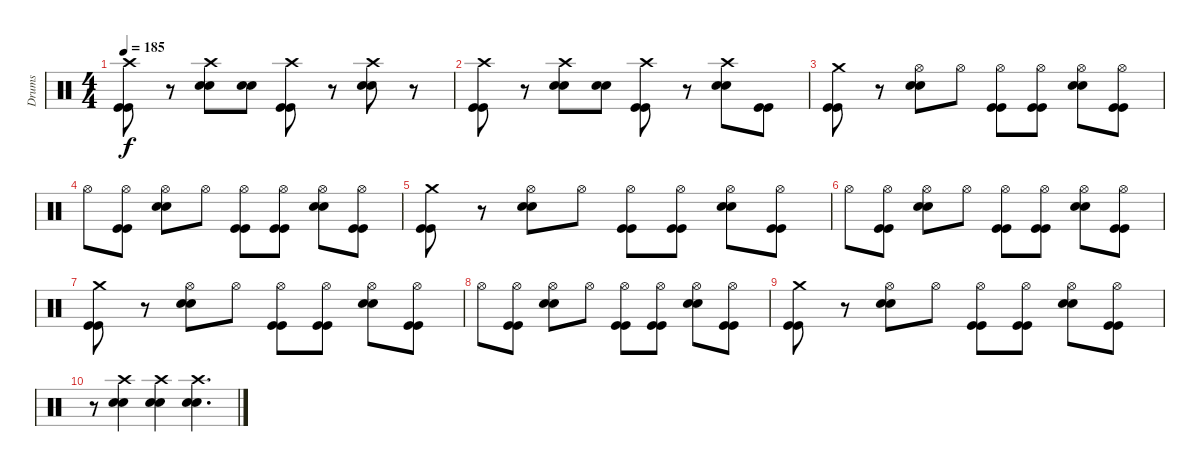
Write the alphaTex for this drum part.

\track ("Drums" "Drums") {instrument percussion}
\staff {score}
\articulation defaults
\ts (4 4)
\tempo 185
\clef neutral
\ks c
("Crash high (hit)" "Kick (hit)" "Kick (hit)").8{dy f} r.8 ("Crash high (hit)" "Electric Snare (hit)" "Electric Snare (hit)").8 ("Electric Snare (hit)" "Electric Snare (hit)").8 ("Crash high (hit)" "Kick (hit)" "Kick (hit)").8 r.8 ("Crash high (hit)" "Electric Snare (hit)" "Electric Snare (hit)").8 r.8 |
("Crash high (hit)" "Kick (hit)" "Kick (hit)").8 r.8 ("Crash high (hit)" "Electric Snare (hit)" "Electric Snare (hit)").8 ("Electric Snare (hit)" "Electric Snare (hit)").8 ("Crash high (hit)" "Kick (hit)" "Kick (hit)").8 r.8 ("Crash high (hit)" "Electric Snare (hit)" "Electric Snare (hit)").8 ("Kick (hit)" "Kick (hit)").8 |
("Crash medium (hit)" "Kick (hit)" "Kick (hit)").8 r.8 ("Hi-Hat (open)" "Electric Snare (hit)" "Electric Snare (hit)").8 "Hi-Hat (open)".8 ("Hi-Hat (open)" "Kick (hit)" "Kick (hit)").8 ("Hi-Hat (open)" "Kick (hit)" "Kick (hit)").8 ("Hi-Hat (open)" "Electric Snare (hit)" "Electric Snare (hit)").8 ("Hi-Hat (open)" "Kick (hit)" "Kick (hit)").8 |
"Hi-Hat (open)".8 ("Hi-Hat (open)" "Kick (hit)" "Kick (hit)").8 ("Hi-Hat (open)" "Electric Snare (hit)" "Electric Snare (hit)").8 "Hi-Hat (open)".8 ("Hi-Hat (open)" "Kick (hit)" "Kick (hit)").8 ("Hi-Hat (open)" "Kick (hit)" "Kick (hit)").8 ("Hi-Hat (open)" "Electric Snare (hit)" "Electric Snare (hit)").8 ("Hi-Hat (open)" "Kick (hit)" "Kick (hit)").8 |
("Crash medium (hit)" "Kick (hit)" "Kick (hit)").8 r.8 ("Hi-Hat (open)" "Electric Snare (hit)" "Electric Snare (hit)").8 "Hi-Hat (open)".8 ("Hi-Hat (open)" "Kick (hit)" "Kick (hit)").8 ("Hi-Hat (open)" "Kick (hit)" "Kick (hit)").8 ("Hi-Hat (open)" "Electric Snare (hit)" "Electric Snare (hit)").8 ("Hi-Hat (open)" "Kick (hit)" "Kick (hit)").8 |
"Hi-Hat (open)".8 ("Hi-Hat (open)" "Kick (hit)" "Kick (hit)").8 ("Hi-Hat (open)" "Electric Snare (hit)" "Electric Snare (hit)").8 "Hi-Hat (open)".8 ("Hi-Hat (open)" "Kick (hit)" "Kick (hit)").8 ("Hi-Hat (open)" "Kick (hit)" "Kick (hit)").8 ("Hi-Hat (open)" "Electric Snare (hit)" "Electric Snare (hit)").8 ("Hi-Hat (open)" "Kick (hit)" "Kick (hit)").8 |
("Crash medium (hit)" "Kick (hit)" "Kick (hit)").8 r.8 ("Hi-Hat (open)" "Electric Snare (hit)" "Electric Snare (hit)").8 "Hi-Hat (open)".8 ("Hi-Hat (open)" "Kick (hit)" "Kick (hit)").8 ("Hi-Hat (open)" "Kick (hit)" "Kick (hit)").8 ("Hi-Hat (open)" "Electric Snare (hit)" "Electric Snare (hit)").8 ("Hi-Hat (open)" "Kick (hit)" "Kick (hit)").8 |
"Hi-Hat (open)".8 ("Hi-Hat (open)" "Kick (hit)" "Kick (hit)").8 ("Hi-Hat (open)" "Electric Snare (hit)" "Electric Snare (hit)").8 "Hi-Hat (open)".8 ("Hi-Hat (open)" "Kick (hit)" "Kick (hit)").8 ("Hi-Hat (open)" "Kick (hit)" "Kick (hit)").8 ("Hi-Hat (open)" "Electric Snare (hit)" "Electric Snare (hit)").8 ("Hi-Hat (open)" "Kick (hit)" "Kick (hit)").8 |
("Crash medium (hit)" "Kick (hit)" "Kick (hit)").8 r.8 ("Hi-Hat (open)" "Electric Snare (hit)" "Electric Snare (hit)").8 "Hi-Hat (open)".8 ("Hi-Hat (open)" "Kick (hit)" "Kick (hit)").8 ("Hi-Hat (open)" "Kick (hit)" "Kick (hit)").8 ("Hi-Hat (open)" "Electric Snare (hit)" "Electric Snare (hit)").8 ("Hi-Hat (open)" "Kick (hit)" "Kick (hit)").8 |
r.8 ("Crash high (hit)" "Electric Snare (hit)" "Electric Snare (hit)").4 ("Crash high (hit)" "Electric Snare (hit)" "Electric Snare (hit)").4 ("Crash high (hit)" "Electric Snare (hit)" "Electric Snare (hit)").4{d}
